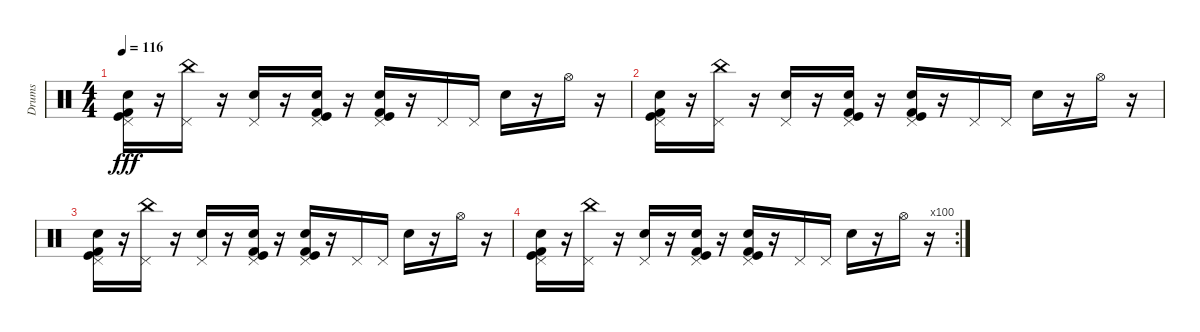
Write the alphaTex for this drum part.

\track ("Drums" "Drums") {instrument percussion}
\staff {score}
\articulation defaults
\ts (4 4)
\tempo 116
\clef neutral
\ks c
("Snare (hit) 2" "Pedal Hi-Hat (hit)" "Kick (hit) 2" "Kick (hit)").16{dy fff} r.16 ("China (hit)" "Pedal Hi-Hat (hit)").16 r.16 ("Pedal Hi-Hat (hit)" "Electric Snare (hit)").16 r.16 ("Snare (hit) 2" "Pedal Hi-Hat (hit)" "Kick (hit) 2" "Kick (hit)").16 r.16 ("Snare (hit) 2" "Pedal Hi-Hat (hit)" "Kick (hit) 2" "Kick (hit)").16 r.16 "Pedal Hi-Hat (hit)".16 "Pedal Hi-Hat (hit)".16 "Electric Snare (hit)".16 r.16 "Hi-Hat (open)".16 r.16 |
("Snare (hit) 2" "Pedal Hi-Hat (hit)" "Kick (hit) 2" "Kick (hit)").16 r.16 ("China (hit)" "Pedal Hi-Hat (hit)").16 r.16 ("Pedal Hi-Hat (hit)" "Electric Snare (hit)").16 r.16 ("Snare (hit) 2" "Pedal Hi-Hat (hit)" "Kick (hit) 2" "Kick (hit)").16 r.16 ("Snare (hit) 2" "Pedal Hi-Hat (hit)" "Kick (hit) 2" "Kick (hit)").16 r.16 "Pedal Hi-Hat (hit)".16 "Pedal Hi-Hat (hit)".16 "Electric Snare (hit)".16 r.16 "Hi-Hat (open)".16 r.16 |
("Snare (hit) 2" "Pedal Hi-Hat (hit)" "Kick (hit) 2" "Kick (hit)").16 r.16 ("China (hit)" "Pedal Hi-Hat (hit)").16 r.16 ("Pedal Hi-Hat (hit)" "Electric Snare (hit)").16 r.16 ("Snare (hit) 2" "Pedal Hi-Hat (hit)" "Kick (hit) 2" "Kick (hit)").16 r.16 ("Snare (hit) 2" "Pedal Hi-Hat (hit)" "Kick (hit) 2" "Kick (hit)").16 r.16 "Pedal Hi-Hat (hit)".16 "Pedal Hi-Hat (hit)".16 "Electric Snare (hit)".16 r.16 "Hi-Hat (open)".16 r.16 |
\rc 100
("Snare (hit) 2" "Pedal Hi-Hat (hit)" "Kick (hit) 2" "Kick (hit)").16 r.16 ("China (hit)" "Pedal Hi-Hat (hit)").16 r.16 ("Pedal Hi-Hat (hit)" "Electric Snare (hit)").16 r.16 ("Snare (hit) 2" "Pedal Hi-Hat (hit)" "Kick (hit) 2" "Kick (hit)").16 r.16 ("Snare (hit) 2" "Pedal Hi-Hat (hit)" "Kick (hit) 2" "Kick (hit)").16 r.16 "Pedal Hi-Hat (hit)".16 "Pedal Hi-Hat (hit)".16 "Electric Snare (hit)".16 r.16 "Hi-Hat (open)".16 r.16
